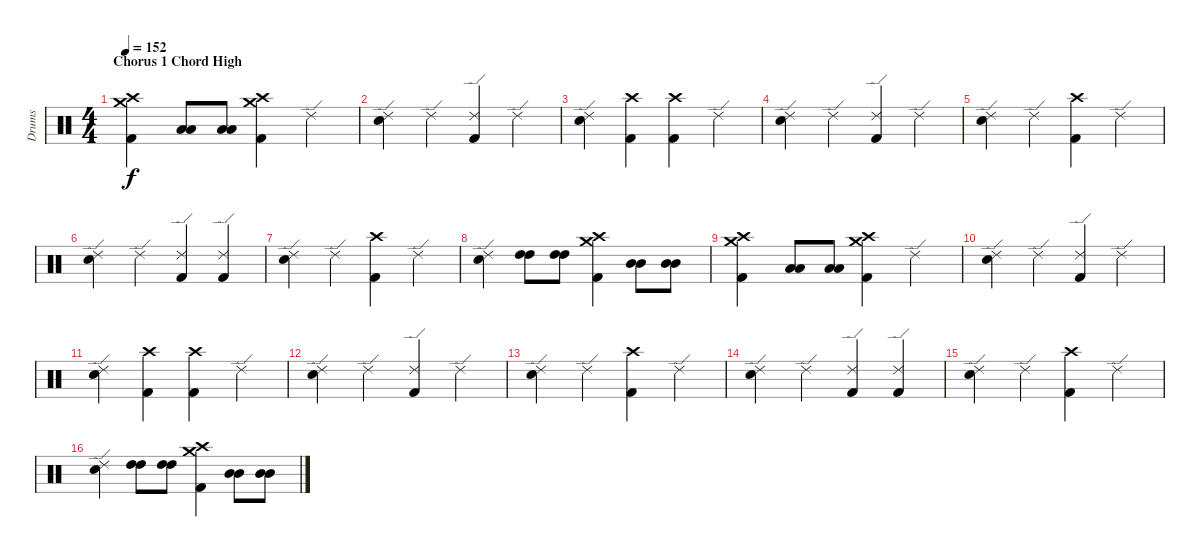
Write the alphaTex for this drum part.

\track ("Drums" "Drums") {instrument percussion}
\staff {score}
\articulation defaults
\ts (4 4)
\section ("" "Chorus 1 Chord High")
\tempo 152
\clef neutral
\ks c
("Kick (hit) 2" "Crash high (hit)" "Crash medium (hit)").4{dy f} ("Low Tom (hit)" "Low Tom (hit)").8 ("Low Tom (hit)" "Low Tom (hit)").8 ("Kick (hit) 2" "Crash high (hit)" "Crash medium (hit)").4 "Ride (edge) 2".4 |
("Electric Snare (hit)" "Ride (edge) 2").4 "Ride (edge) 2".4 ("Kick (hit) 2" "Ride (edge) 2").4 "Ride (edge) 2".4 |
("Electric Snare (hit)" "Ride (edge) 2").4 ("Kick (hit) 2" "Crash high (hit)").4 ("Kick (hit) 2" "Crash high (hit)").4 "Ride (edge) 2".4 |
("Electric Snare (hit)" "Ride (edge) 2").4 "Ride (edge) 2".4 ("Kick (hit) 2" "Ride (edge) 2").4 "Ride (edge) 2".4 |
("Electric Snare (hit)" "Ride (edge) 2").4 "Ride (edge) 2".4 ("Kick (hit) 2" "Crash high (hit)").4 "Ride (edge) 2".4 |
("Electric Snare (hit)" "Ride (edge) 2").4 "Ride (edge) 2".4 ("Kick (hit) 2" "Ride (edge) 2").4 ("Kick (hit) 2" "Ride (edge) 2").4 |
("Electric Snare (hit)" "Ride (edge) 2").4 "Ride (edge) 2".4 ("Kick (hit) 2" "Crash high (hit)").4 "Ride (edge) 2".4 |
("Electric Snare (hit)" "Ride (edge) 2").4 ("High Tom (hit)" "High Tom (hit)").8 ("High Tom (hit)" "High Tom (hit)").8 ("Kick (hit) 2" "Crash high (hit)" "Crash medium (hit)").4 ("Mid Tom (hit)" "Mid Tom (hit)").8 ("Mid Tom (hit)" "Mid Tom (hit)").8 |
("Kick (hit) 2" "Crash high (hit)" "Crash medium (hit)").4 ("Low Tom (hit)" "Low Tom (hit)").8 ("Low Tom (hit)" "Low Tom (hit)").8 ("Kick (hit) 2" "Crash high (hit)" "Crash medium (hit)").4 "Ride (edge) 2".4 |
("Electric Snare (hit)" "Ride (edge) 2").4 "Ride (edge) 2".4 ("Kick (hit) 2" "Ride (edge) 2").4 "Ride (edge) 2".4 |
("Electric Snare (hit)" "Ride (edge) 2").4 ("Kick (hit) 2" "Crash high (hit)").4 ("Kick (hit) 2" "Crash high (hit)").4 "Ride (edge) 2".4 |
("Electric Snare (hit)" "Ride (edge) 2").4 "Ride (edge) 2".4 ("Kick (hit) 2" "Ride (edge) 2").4 "Ride (edge) 2".4 |
("Electric Snare (hit)" "Ride (edge) 2").4 "Ride (edge) 2".4 ("Kick (hit) 2" "Crash high (hit)").4 "Ride (edge) 2".4 |
("Electric Snare (hit)" "Ride (edge) 2").4 "Ride (edge) 2".4 ("Kick (hit) 2" "Ride (edge) 2").4 ("Kick (hit) 2" "Ride (edge) 2").4 |
("Electric Snare (hit)" "Ride (edge) 2").4 "Ride (edge) 2".4 ("Kick (hit) 2" "Crash high (hit)").4 "Ride (edge) 2".4 |
("Electric Snare (hit)" "Ride (edge) 2").4 ("High Tom (hit)" "High Tom (hit)").8 ("High Tom (hit)" "High Tom (hit)").8 ("Kick (hit) 2" "Crash high (hit)" "Crash medium (hit)").4 ("Mid Tom (hit)" "Mid Tom (hit)").8 ("Mid Tom (hit)" "Mid Tom (hit)").8
